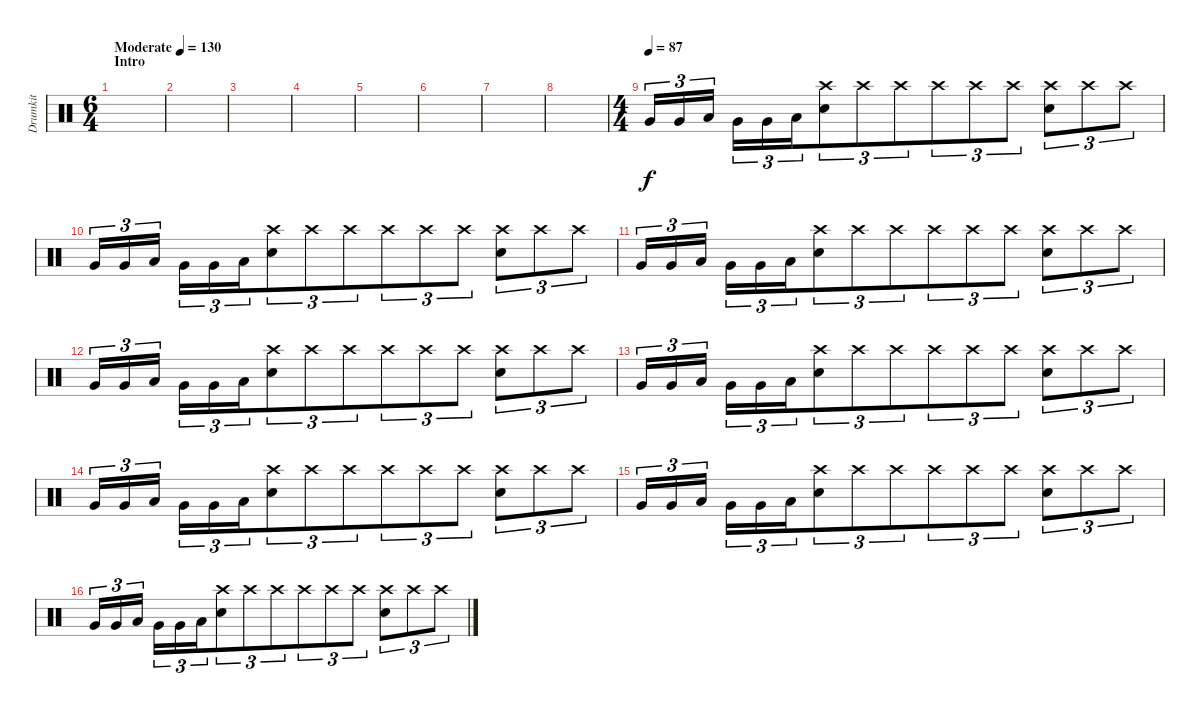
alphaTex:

\track ("Drumkit" "Drumkit") {instrument percussion bank 158}
\staff {score}
\articulation defaults
\ts (6 4)
\section ("" "Intro")
\tempo (130 "Moderate")
\clef neutral
\ks c
|
|
|
|
|
|
|
|
\ts (4 4)
\tempo (87)
"Very Low Tom (hit)".16{tu (3 2)} "Very Low Tom (hit)".16{tu (3 2)} "Low Floor Tom (hit)".16{tu (3 2) beam splitsecondary} "Very Low Tom (hit)".16{tu (3 2)} "Very Low Tom (hit)".16{tu (3 2) beam merge} "Low Floor Tom (hit)".16{tu (3 2) beam merge} ("Crash high (hit)" "Electric Snare (hit)").8{tu (3 2)} "Crash high (hit)".8{tu (3 2)} "Crash high (hit)".8{tu (3 2) beam merge} "Crash high (hit)".8{tu (3 2)} "Crash high (hit)".8{tu (3 2) beam merge} "Crash high (hit)".8{tu (3 2)} ("Crash high (hit)" "Electric Snare (hit)").8{tu (3 2)} "Crash high (hit)".8{tu (3 2) beam merge} "Crash high (hit)".8{tu (3 2)} |
"Very Low Tom (hit)".16{tu (3 2)} "Very Low Tom (hit)".16{tu (3 2)} "Low Floor Tom (hit)".16{tu (3 2) beam splitsecondary} "Very Low Tom (hit)".16{tu (3 2)} "Very Low Tom (hit)".16{tu (3 2) beam merge} "Low Floor Tom (hit)".16{tu (3 2) beam merge} ("Crash high (hit)" "Electric Snare (hit)").8{tu (3 2)} "Crash high (hit)".8{tu (3 2)} "Crash high (hit)".8{tu (3 2) beam merge} "Crash high (hit)".8{tu (3 2)} "Crash high (hit)".8{tu (3 2) beam merge} "Crash high (hit)".8{tu (3 2)} ("Crash high (hit)" "Electric Snare (hit)").8{tu (3 2)} "Crash high (hit)".8{tu (3 2) beam merge} "Crash high (hit)".8{tu (3 2)} |
"Very Low Tom (hit)".16{tu (3 2)} "Very Low Tom (hit)".16{tu (3 2)} "Low Floor Tom (hit)".16{tu (3 2) beam splitsecondary} "Very Low Tom (hit)".16{tu (3 2)} "Very Low Tom (hit)".16{tu (3 2) beam merge} "Low Floor Tom (hit)".16{tu (3 2) beam merge} ("Crash high (hit)" "Electric Snare (hit)").8{tu (3 2)} "Crash high (hit)".8{tu (3 2)} "Crash high (hit)".8{tu (3 2) beam merge} "Crash high (hit)".8{tu (3 2)} "Crash high (hit)".8{tu (3 2) beam merge} "Crash high (hit)".8{tu (3 2)} ("Crash high (hit)" "Electric Snare (hit)").8{tu (3 2)} "Crash high (hit)".8{tu (3 2) beam merge} "Crash high (hit)".8{tu (3 2)} |
"Very Low Tom (hit)".16{tu (3 2)} "Very Low Tom (hit)".16{tu (3 2)} "Low Floor Tom (hit)".16{tu (3 2) beam splitsecondary} "Very Low Tom (hit)".16{tu (3 2)} "Very Low Tom (hit)".16{tu (3 2) beam merge} "Low Floor Tom (hit)".16{tu (3 2) beam merge} ("Crash high (hit)" "Electric Snare (hit)").8{tu (3 2)} "Crash high (hit)".8{tu (3 2)} "Crash high (hit)".8{tu (3 2) beam merge} "Crash high (hit)".8{tu (3 2)} "Crash high (hit)".8{tu (3 2) beam merge} "Crash high (hit)".8{tu (3 2)} ("Crash high (hit)" "Electric Snare (hit)").8{tu (3 2)} "Crash high (hit)".8{tu (3 2) beam merge} "Crash high (hit)".8{tu (3 2)} |
"Very Low Tom (hit)".16{tu (3 2)} "Very Low Tom (hit)".16{tu (3 2)} "Low Floor Tom (hit)".16{tu (3 2) beam splitsecondary} "Very Low Tom (hit)".16{tu (3 2)} "Very Low Tom (hit)".16{tu (3 2) beam merge} "Low Floor Tom (hit)".16{tu (3 2) beam merge} ("Crash high (hit)" "Electric Snare (hit)").8{tu (3 2)} "Crash high (hit)".8{tu (3 2)} "Crash high (hit)".8{tu (3 2) beam merge} "Crash high (hit)".8{tu (3 2)} "Crash high (hit)".8{tu (3 2) beam merge} "Crash high (hit)".8{tu (3 2)} ("Crash high (hit)" "Electric Snare (hit)").8{tu (3 2)} "Crash high (hit)".8{tu (3 2) beam merge} "Crash high (hit)".8{tu (3 2)} |
"Very Low Tom (hit)".16{tu (3 2)} "Very Low Tom (hit)".16{tu (3 2)} "Low Floor Tom (hit)".16{tu (3 2) beam splitsecondary} "Very Low Tom (hit)".16{tu (3 2)} "Very Low Tom (hit)".16{tu (3 2) beam merge} "Low Floor Tom (hit)".16{tu (3 2) beam merge} ("Crash high (hit)" "Electric Snare (hit)").8{tu (3 2)} "Crash high (hit)".8{tu (3 2)} "Crash high (hit)".8{tu (3 2) beam merge} "Crash high (hit)".8{tu (3 2)} "Crash high (hit)".8{tu (3 2) beam merge} "Crash high (hit)".8{tu (3 2)} ("Crash high (hit)" "Electric Snare (hit)").8{tu (3 2)} "Crash high (hit)".8{tu (3 2) beam merge} "Crash high (hit)".8{tu (3 2)} |
"Very Low Tom (hit)".16{tu (3 2)} "Very Low Tom (hit)".16{tu (3 2)} "Low Floor Tom (hit)".16{tu (3 2) beam splitsecondary} "Very Low Tom (hit)".16{tu (3 2)} "Very Low Tom (hit)".16{tu (3 2) beam merge} "Low Floor Tom (hit)".16{tu (3 2) beam merge} ("Crash high (hit)" "Electric Snare (hit)").8{tu (3 2)} "Crash high (hit)".8{tu (3 2)} "Crash high (hit)".8{tu (3 2) beam merge} "Crash high (hit)".8{tu (3 2)} "Crash high (hit)".8{tu (3 2) beam merge} "Crash high (hit)".8{tu (3 2)} ("Crash high (hit)" "Electric Snare (hit)").8{tu (3 2)} "Crash high (hit)".8{tu (3 2) beam merge} "Crash high (hit)".8{tu (3 2)} |
"Very Low Tom (hit)".16{tu (3 2)} "Very Low Tom (hit)".16{tu (3 2)} "Low Floor Tom (hit)".16{tu (3 2) beam splitsecondary} "Very Low Tom (hit)".16{tu (3 2)} "Very Low Tom (hit)".16{tu (3 2) beam merge} "Low Floor Tom (hit)".16{tu (3 2) beam merge} ("Crash high (hit)" "Electric Snare (hit)").8{tu (3 2)} "Crash high (hit)".8{tu (3 2)} "Crash high (hit)".8{tu (3 2) beam merge} "Crash high (hit)".8{tu (3 2)} "Crash high (hit)".8{tu (3 2) beam merge} "Crash high (hit)".8{tu (3 2)} ("Crash high (hit)" "Electric Snare (hit)").8{tu (3 2)} "Crash high (hit)".8{tu (3 2) beam merge} "Crash high (hit)".8{tu (3 2)}
